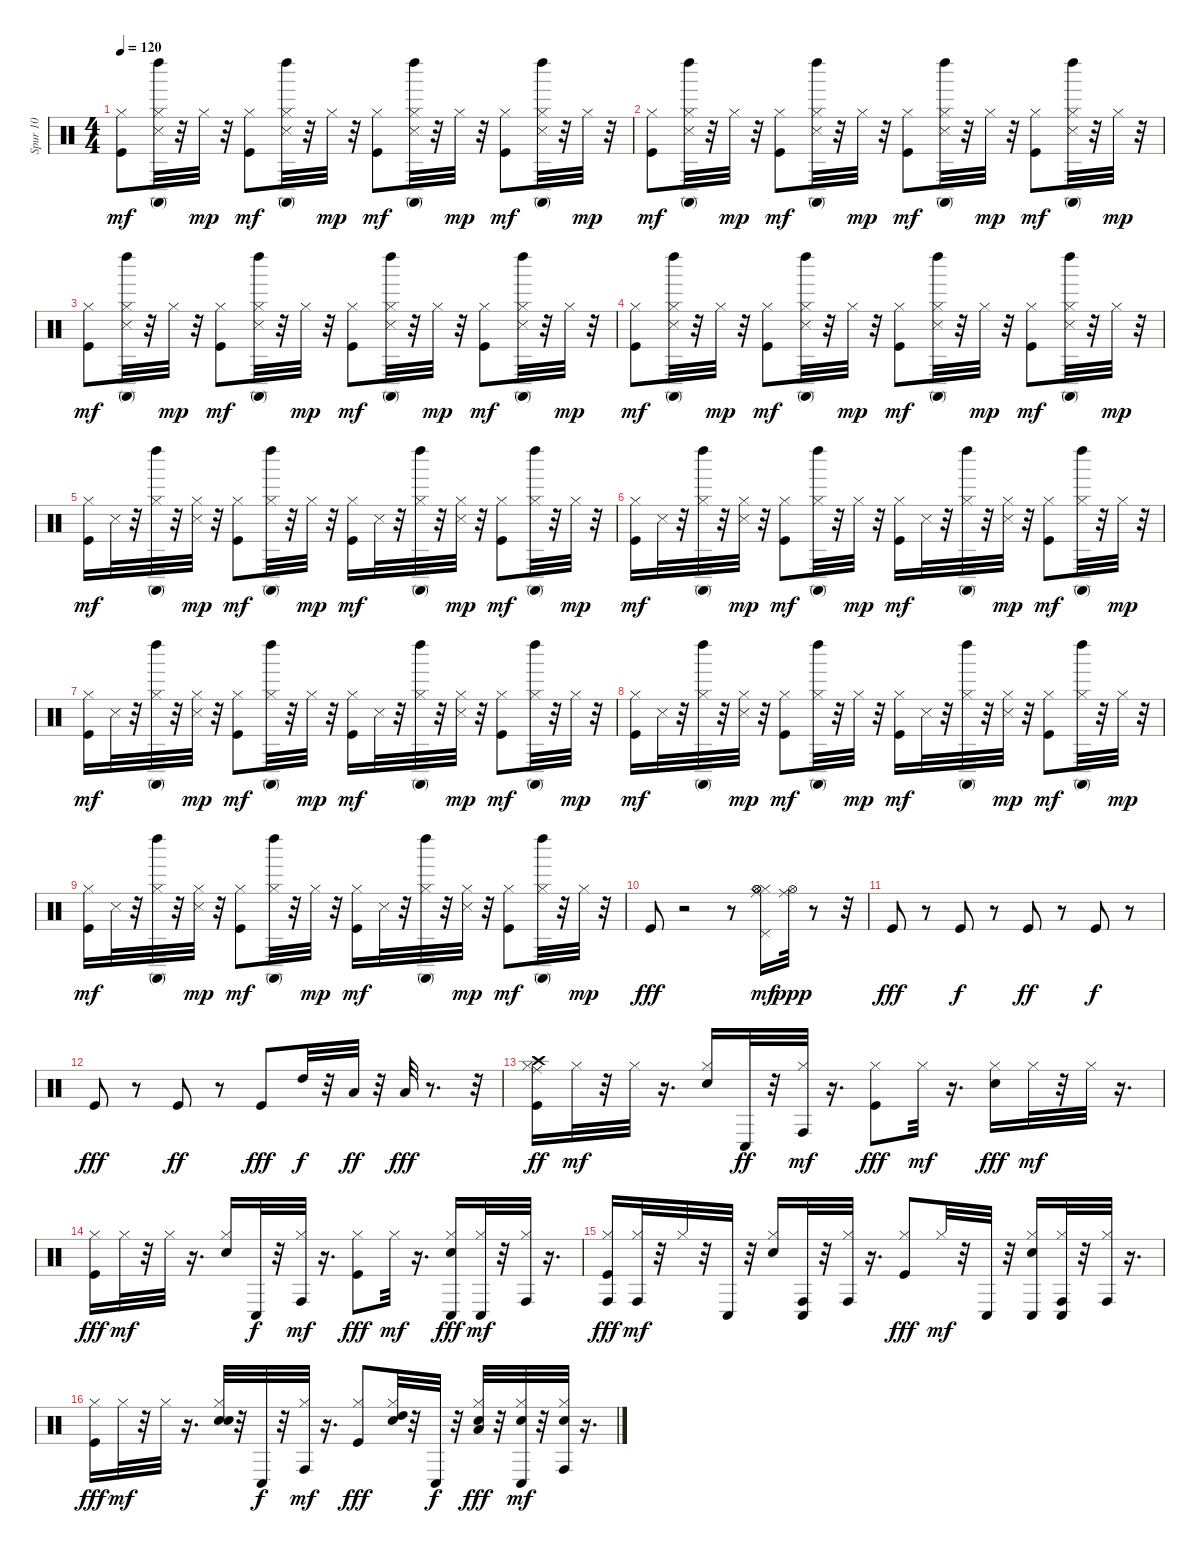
\track ("Spur 10" "Spur 10") {instrument percussion}
\staff {score}
\articulation defaults
\ts (4 4)
\tempo 120
\clef neutral
\ks c
("Kick (hit)" "Hi-Hat (closed)").8{dy mf} ("Hi-Hat (closed)" "Snare (side stick) 3" "Conga high (mute)" "Left Maraca (hit)").32 r.32 "Hi-Hat (closed)".32{dy mp} r.32 ("Kick (hit)" "Hi-Hat (closed)").8{dy mf} ("Hi-Hat (closed)" "Snare (side stick) 3" "Conga high (mute)" "Left Maraca (hit)").32 r.32 "Hi-Hat (closed)".32{dy mp} r.32 ("Kick (hit)" "Hi-Hat (closed)").8{dy mf} ("Hi-Hat (closed)" "Snare (side stick) 3" "Conga high (mute)" "Left Maraca (hit)").32 r.32 "Hi-Hat (closed)".32{dy mp} r.32 ("Kick (hit)" "Hi-Hat (closed)").8{dy mf} ("Hi-Hat (closed)" "Snare (side stick) 3" "Conga high (mute)" "Left Maraca (hit)").32 r.32 "Hi-Hat (closed)".32{dy mp} r.32 |
("Kick (hit)" "Hi-Hat (closed)").8{dy mf} ("Hi-Hat (closed)" "Snare (side stick) 3" "Conga high (mute)" "Left Maraca (hit)").32 r.32 "Hi-Hat (closed)".32{dy mp} r.32 ("Kick (hit)" "Hi-Hat (closed)").8{dy mf} ("Hi-Hat (closed)" "Snare (side stick) 3" "Conga high (mute)" "Left Maraca (hit)").32 r.32 "Hi-Hat (closed)".32{dy mp} r.32 ("Kick (hit)" "Hi-Hat (closed)").8{dy mf} ("Hi-Hat (closed)" "Snare (side stick) 3" "Conga high (mute)" "Left Maraca (hit)").32 r.32 "Hi-Hat (closed)".32{dy mp} r.32 ("Kick (hit)" "Hi-Hat (closed)").8{dy mf} ("Hi-Hat (closed)" "Snare (side stick) 3" "Conga high (mute)" "Left Maraca (hit)").32 r.32 "Hi-Hat (closed)".32{dy mp} r.32 |
("Kick (hit)" "Hi-Hat (closed)").8{dy mf} ("Hi-Hat (closed)" "Snare (side stick) 3" "Conga high (mute)" "Left Maraca (hit)").32 r.32 "Hi-Hat (closed)".32{dy mp} r.32 ("Kick (hit)" "Hi-Hat (closed)").8{dy mf} ("Hi-Hat (closed)" "Snare (side stick) 3" "Conga high (mute)" "Left Maraca (hit)").32 r.32 "Hi-Hat (closed)".32{dy mp} r.32 ("Kick (hit)" "Hi-Hat (closed)").8{dy mf} ("Hi-Hat (closed)" "Snare (side stick) 3" "Conga high (mute)" "Left Maraca (hit)").32 r.32 "Hi-Hat (closed)".32{dy mp} r.32 ("Kick (hit)" "Hi-Hat (closed)").8{dy mf} ("Hi-Hat (closed)" "Snare (side stick) 3" "Conga high (mute)" "Left Maraca (hit)").32 r.32 "Hi-Hat (closed)".32{dy mp} r.32 |
("Kick (hit)" "Hi-Hat (closed)").8{dy mf} ("Hi-Hat (closed)" "Snare (side stick) 3" "Conga high (mute)" "Left Maraca (hit)").32 r.32 "Hi-Hat (closed)".32{dy mp} r.32 ("Kick (hit)" "Hi-Hat (closed)").8{dy mf} ("Hi-Hat (closed)" "Snare (side stick) 3" "Conga high (mute)" "Left Maraca (hit)").32 r.32 "Hi-Hat (closed)".32{dy mp} r.32 ("Kick (hit)" "Hi-Hat (closed)").8{dy mf} ("Hi-Hat (closed)" "Snare (side stick) 3" "Conga high (mute)" "Left Maraca (hit)").32 r.32 "Hi-Hat (closed)".32{dy mp} r.32 ("Kick (hit)" "Hi-Hat (closed)").8{dy mf} ("Hi-Hat (closed)" "Snare (side stick) 3" "Conga high (mute)" "Left Maraca (hit)").32 r.32 "Hi-Hat (closed)".32{dy mp} r.32 |
("Kick (hit)" "Hi-Hat (closed)").16{dy mf} "Snare (side stick) 3".32 r.32 ("Hi-Hat (closed)" "Conga high (mute)" "Left Maraca (hit)").32 r.32 ("Hi-Hat (closed)" "Snare (side stick) 3").32{dy mp} r.32 ("Kick (hit)" "Hi-Hat (closed)").8{dy mf} ("Hi-Hat (closed)" "Conga high (mute)" "Left Maraca (hit)").32 r.32 "Hi-Hat (closed)".32{dy mp} r.32 ("Kick (hit)" "Hi-Hat (closed)").16{dy mf} "Snare (side stick) 3".32 r.32 ("Hi-Hat (closed)" "Conga high (mute)" "Left Maraca (hit)").32 r.32 ("Hi-Hat (closed)" "Snare (side stick) 3").32{dy mp} r.32 ("Kick (hit)" "Hi-Hat (closed)").8{dy mf} ("Hi-Hat (closed)" "Conga high (mute)" "Left Maraca (hit)").32 r.32 "Hi-Hat (closed)".32{dy mp} r.32 |
("Kick (hit)" "Hi-Hat (closed)").16{dy mf} "Snare (side stick) 3".32 r.32 ("Hi-Hat (closed)" "Conga high (mute)" "Left Maraca (hit)").32 r.32 ("Hi-Hat (closed)" "Snare (side stick) 3").32{dy mp} r.32 ("Kick (hit)" "Hi-Hat (closed)").8{dy mf} ("Hi-Hat (closed)" "Conga high (mute)" "Left Maraca (hit)").32 r.32 "Hi-Hat (closed)".32{dy mp} r.32 ("Kick (hit)" "Hi-Hat (closed)").16{dy mf} "Snare (side stick) 3".32 r.32 ("Hi-Hat (closed)" "Conga high (mute)" "Left Maraca (hit)").32 r.32 ("Hi-Hat (closed)" "Snare (side stick) 3").32{dy mp} r.32 ("Kick (hit)" "Hi-Hat (closed)").8{dy mf} ("Hi-Hat (closed)" "Conga high (mute)" "Left Maraca (hit)").32 r.32 "Hi-Hat (closed)".32{dy mp} r.32 |
("Kick (hit)" "Hi-Hat (closed)").16{dy mf} "Snare (side stick) 3".32 r.32 ("Hi-Hat (closed)" "Conga high (mute)" "Left Maraca (hit)").32 r.32 ("Hi-Hat (closed)" "Snare (side stick) 3").32{dy mp} r.32 ("Kick (hit)" "Hi-Hat (closed)").8{dy mf} ("Hi-Hat (closed)" "Conga high (mute)" "Left Maraca (hit)").32 r.32 "Hi-Hat (closed)".32{dy mp} r.32 ("Kick (hit)" "Hi-Hat (closed)").16{dy mf} "Snare (side stick) 3".32 r.32 ("Hi-Hat (closed)" "Conga high (mute)" "Left Maraca (hit)").32 r.32 ("Hi-Hat (closed)" "Snare (side stick) 3").32{dy mp} r.32 ("Kick (hit)" "Hi-Hat (closed)").8{dy mf} ("Hi-Hat (closed)" "Conga high (mute)" "Left Maraca (hit)").32 r.32 "Hi-Hat (closed)".32{dy mp} r.32 |
("Kick (hit)" "Hi-Hat (closed)").16{dy mf} "Snare (side stick) 3".32 r.32 ("Hi-Hat (closed)" "Conga high (mute)" "Left Maraca (hit)").32 r.32 ("Hi-Hat (closed)" "Snare (side stick) 3").32{dy mp} r.32 ("Kick (hit)" "Hi-Hat (closed)").8{dy mf} ("Hi-Hat (closed)" "Conga high (mute)" "Left Maraca (hit)").32 r.32 "Hi-Hat (closed)".32{dy mp} r.32 ("Kick (hit)" "Hi-Hat (closed)").16{dy mf} "Snare (side stick) 3".32 r.32 ("Hi-Hat (closed)" "Conga high (mute)" "Left Maraca (hit)").32 r.32 ("Hi-Hat (closed)" "Snare (side stick) 3").32{dy mp} r.32 ("Kick (hit)" "Hi-Hat (closed)").8{dy mf} ("Hi-Hat (closed)" "Conga high (mute)" "Left Maraca (hit)").32 r.32 "Hi-Hat (closed)".32{dy mp} r.32 |
("Kick (hit)" "Hi-Hat (closed)").16{dy mf} "Snare (side stick) 3".32 r.32 ("Hi-Hat (closed)" "Conga high (mute)" "Left Maraca (hit)").32 r.32 ("Hi-Hat (closed)" "Snare (side stick) 3").32{dy mp} r.32 ("Kick (hit)" "Hi-Hat (closed)").8{dy mf} ("Hi-Hat (closed)" "Conga high (mute)" "Left Maraca (hit)").32 r.32 "Hi-Hat (closed)".32{dy mp} r.32 ("Kick (hit)" "Hi-Hat (closed)").16{dy mf} "Snare (side stick) 3".32 r.32 ("Hi-Hat (closed)" "Conga high (mute)" "Left Maraca (hit)").32 r.32 ("Hi-Hat (closed)" "Snare (side stick) 3").32{dy mp} r.32 ("Kick (hit)" "Hi-Hat (closed)").8{dy mf} ("Hi-Hat (closed)" "Conga high (mute)" "Left Maraca (hit)").32 r.32 "Hi-Hat (closed)".32{dy mp} r.32 |
"Kick (hit)".8{dy fff} r.2 r.8 ("Hi-Hat (closed)" "Pedal Hi-Hat (hit)" "Hi-Hat (open)" "Ride (middle)" "Hi-Hat (open)").16{dy mf} ("Hi-Hat (open)" "Ride (middle)").32{dy ppp} r.8 r.32 |
"Kick (hit)".8{dy fff} r.8 "Kick (hit)".8{dy f} r.8 "Kick (hit)".8{dy ff} r.8 "Kick (hit)".8{dy f} r.8 |
"Kick (hit)".8{dy fff} r.8 "Kick (hit)".8{dy ff} r.8 "Kick (hit)".8{dy fff} "High Tom (hit)".32{dy f} r.32 "Low Tom (hit)".32{dy ff} r.32 "Low Floor Tom (hit)".32{dy fff} r.8{d} r.32 |
("Kick (hit)" "Hi-Hat (closed)" "Ride (middle)" "Crash high (hit)").16{dy ff} "Hi-Hat (closed)".32{dy mf} r.32 "Hi-Hat (closed)".32 r.16{d} ("Snare (hit) 2" "Hi-Hat (closed)").16 "Conga low (hit)".32{dy ff} r.32 ("Hi-Hat (closed)" "Conga high (hit)").32{dy mf} r.16{d} ("Kick (hit)" "Hi-Hat (closed)").8{dy fff} "Hi-Hat (closed)".32{dy mf} r.16{d} ("Snare (hit) 2" "Hi-Hat (closed)").16{dy fff} "Hi-Hat (closed)".32{dy mf} r.32 "Hi-Hat (closed)".32 r.16{d} |
("Kick (hit)" "Hi-Hat (closed)").16{dy fff} "Hi-Hat (closed)".32{dy mf} r.32 "Hi-Hat (closed)".32 r.16{d} ("Snare (hit) 2" "Hi-Hat (closed)").16 "Conga low (hit)".32{dy f} r.32 ("Hi-Hat (closed)" "Conga high (hit)").32{dy mf} r.16{d} ("Kick (hit)" "Hi-Hat (closed)").8{dy fff} "Hi-Hat (closed)".32{dy mf} r.16{d} ("Snare (hit) 2" "Hi-Hat (closed)" "Conga low (hit)").16{dy fff} ("Hi-Hat (closed)" "Conga low (hit)").32{dy mf} r.32 ("Hi-Hat (closed)" "Conga high (hit)").32 r.16{d} |
("Kick (hit)" "Hi-Hat (closed)" "Conga high (hit)").16{dy fff} ("Hi-Hat (closed)" "Conga high (hit)").32{dy mf} r.32 "Hi-Hat (closed)".32 r.32 "Conga low (hit)".32 r.32 ("Snare (hit) 2" "Hi-Hat (closed)").16 ("Conga high (hit)" "Conga low (hit)").32 r.32 ("Hi-Hat (closed)" "Conga high (hit)").32 r.16{d} ("Kick (hit)" "Hi-Hat (closed)").8{dy fff} "Hi-Hat (closed)".32{dy mf} r.32 "Conga low (hit)".32 r.32 ("Snare (hit) 2" "Hi-Hat (closed)" "Conga low (hit)").16 ("Hi-Hat (closed)" "Conga high (hit)" "Conga low (hit)").32 r.32 ("Hi-Hat (closed)" "Conga high (hit)").32 r.16{d} |
("Kick (hit)" "Hi-Hat (closed)").16{dy fff} "Hi-Hat (closed)".32{dy mf} r.32 "Hi-Hat (closed)".32 r.16{d} ("Snare (hit) 2" "Electric Snare (hit)" "Hi-Hat (closed)").32 r.32 "Conga low (hit)".32{dy f} r.32 ("Hi-Hat (closed)" "Conga high (hit)").32{dy mf} r.16{d} ("Kick (hit)" "Hi-Hat (closed)").8{dy fff} ("Electric Snare (hit)" "Hi-Hat (closed)" "High Tom (hit)").32 r.32 "Conga low (hit)".32{dy f} r.32 ("Snare (hit) 2" "Hi-Hat (closed)" "Low Floor Tom (hit)").32{dy fff} r.32 ("Snare (hit) 2" "Hi-Hat (closed)" "Conga low (hit)").32{dy mf} r.32 ("Snare (hit) 2" "Hi-Hat (closed)" "Conga high (hit)").32 r.16{d}
